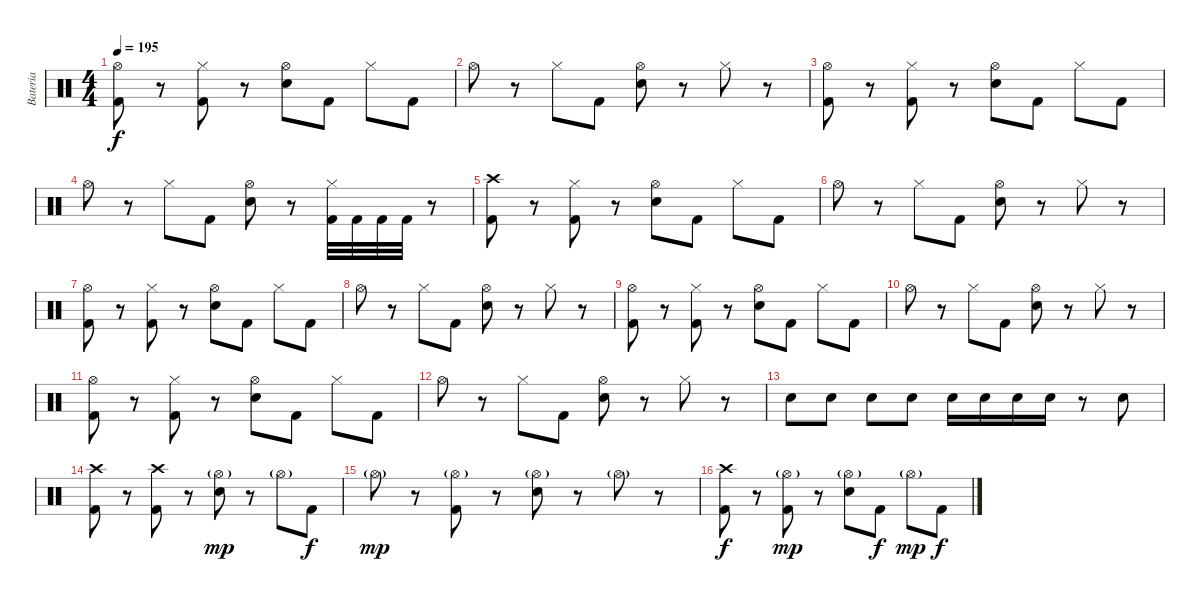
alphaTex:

\track ("Bateria" "Bateria") {instrument percussion}
\staff {score}
\articulation defaults
\ts (4 4)
\tempo 195
\clef neutral
\ks c
("Hi-Hat (open)" "Kick (hit) 2").8{dy f} r.8 ("Hi-Hat (closed)" "Kick (hit) 2").8 r.8 ("Hi-Hat (open)" "Snare (hit) 2").8 "Kick (hit) 2".8 "Hi-Hat (closed)".8 "Kick (hit) 2".8 |
"Hi-Hat (open)".8 r.8 "Hi-Hat (closed)".8 "Kick (hit) 2".8 ("Hi-Hat (open)" "Snare (hit) 2").8 r.8 "Hi-Hat (closed)".8 r.8 |
("Hi-Hat (open)" "Kick (hit) 2").8 r.8 ("Hi-Hat (closed)" "Kick (hit) 2").8 r.8 ("Hi-Hat (open)" "Snare (hit) 2").8 "Kick (hit) 2".8 "Hi-Hat (closed)".8 "Kick (hit) 2".8 |
"Hi-Hat (open)".8 r.8 "Hi-Hat (closed)".8 "Kick (hit) 2".8 ("Hi-Hat (open)" "Snare (hit) 2").8 r.8 ("Hi-Hat (closed)" "Kick (hit) 2").32 "Kick (hit) 2".32 "Kick (hit) 2".32 "Kick (hit) 2".32 r.8 |
("Crash high (hit)" "Kick (hit) 2").8 r.8 ("Hi-Hat (closed)" "Kick (hit) 2").8 r.8 ("Hi-Hat (open)" "Snare (hit) 2").8 "Kick (hit) 2".8 "Hi-Hat (closed)".8 "Kick (hit) 2".8 |
"Hi-Hat (open)".8 r.8 "Hi-Hat (closed)".8 "Kick (hit) 2".8 ("Hi-Hat (open)" "Snare (hit) 2").8 r.8 "Hi-Hat (closed)".8 r.8 |
("Hi-Hat (open)" "Kick (hit) 2").8 r.8 ("Hi-Hat (closed)" "Kick (hit) 2").8 r.8 ("Hi-Hat (open)" "Snare (hit) 2").8 "Kick (hit) 2".8 "Hi-Hat (closed)".8 "Kick (hit) 2".8 |
"Hi-Hat (open)".8 r.8 "Hi-Hat (closed)".8 "Kick (hit) 2".8 ("Hi-Hat (open)" "Snare (hit) 2").8 r.8 "Hi-Hat (closed)".8 r.8 |
("Hi-Hat (open)" "Kick (hit) 2").8 r.8 ("Hi-Hat (closed)" "Kick (hit) 2").8 r.8 ("Hi-Hat (open)" "Snare (hit) 2").8 "Kick (hit) 2".8 "Hi-Hat (closed)".8 "Kick (hit) 2".8 |
"Hi-Hat (open)".8 r.8 "Hi-Hat (closed)".8 "Kick (hit) 2".8 ("Hi-Hat (open)" "Snare (hit) 2").8 r.8 "Hi-Hat (closed)".8 r.8 |
("Hi-Hat (open)" "Kick (hit) 2").8 r.8 ("Hi-Hat (closed)" "Kick (hit) 2").8 r.8 ("Hi-Hat (open)" "Snare (hit) 2").8 "Kick (hit) 2".8 "Hi-Hat (closed)".8 "Kick (hit) 2".8 |
"Hi-Hat (open)".8 r.8 "Hi-Hat (closed)".8 "Kick (hit) 2".8 ("Hi-Hat (open)" "Snare (hit) 2").8 r.8 "Hi-Hat (closed)".8 r.8 |
"Snare (hit) 2".8 "Snare (hit) 2".8 "Snare (hit) 2".8 "Snare (hit) 2".8 "Snare (hit) 2".16 "Snare (hit) 2".16 "Snare (hit) 2".16 "Snare (hit) 2".16 r.8 "Snare (hit) 2".8 |
("Crash high (hit)" "Kick (hit) 2").8 r.8 ("Crash high (hit)" "Kick (hit) 2").8 r.8 ("Hi-Hat (open)"{g} "Snare (hit) 2").8{dy mp} r.8 "Hi-Hat (open)"{g}.8 "Kick (hit) 2".8{dy f} |
"Hi-Hat (open)"{g}.8{dy mp} r.8 ("Hi-Hat (open)"{g} "Kick (hit) 2").8 r.8 ("Hi-Hat (open)"{g} "Snare (hit) 2").8 r.8 "Hi-Hat (open)"{g}.8 r.8 |
("Crash high (hit)" "Kick (hit) 2").8{dy f} r.8 ("Hi-Hat (open)"{g} "Kick (hit) 2").8{dy mp} r.8 ("Hi-Hat (open)"{g} "Snare (hit) 2").8 "Kick (hit) 2".8{dy f} "Hi-Hat (open)"{g}.8{dy mp} "Kick (hit) 2".8{dy f}
